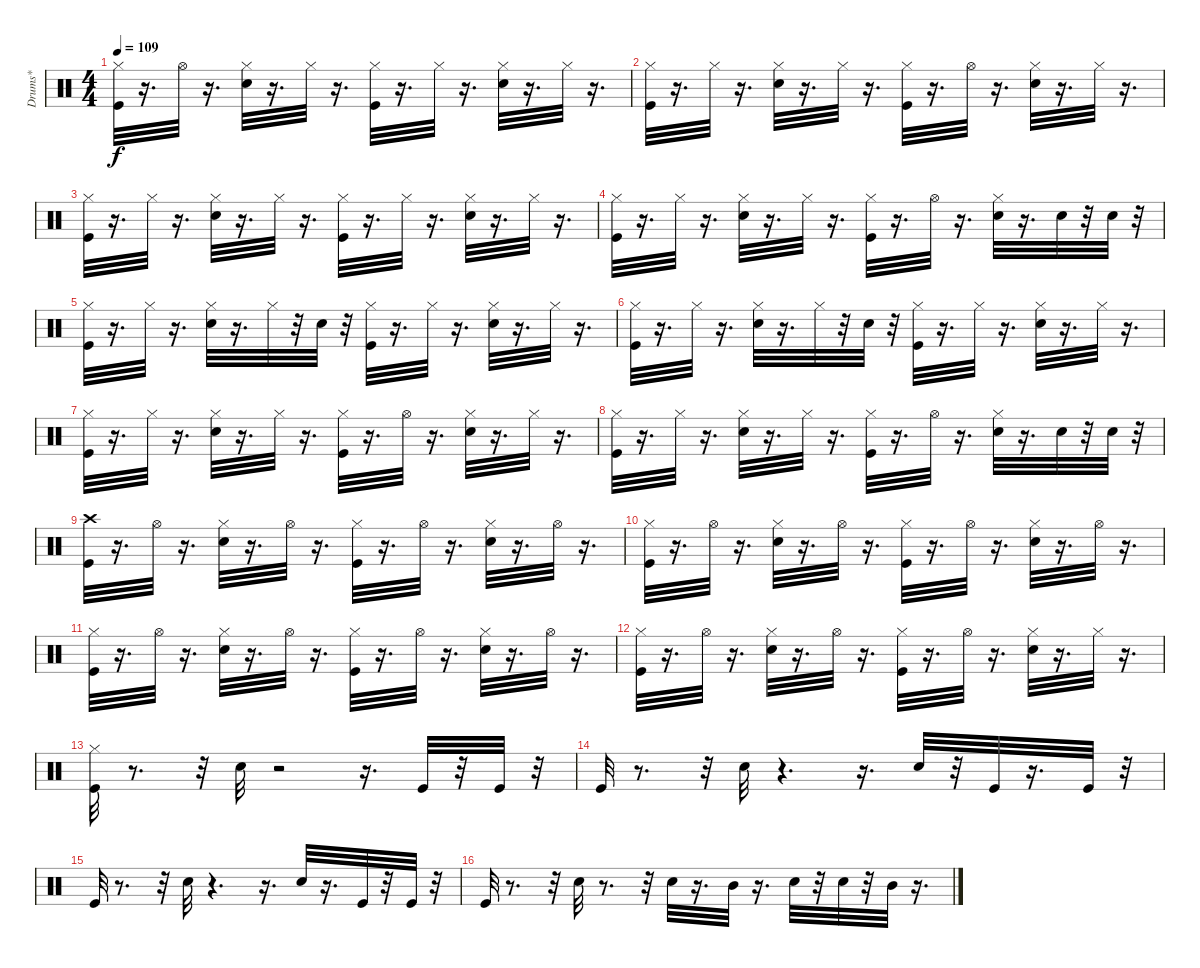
\track ("Drums*" "Drums*") {instrument percussion}
\staff {score}
\articulation defaults
\ts (4 4)
\tempo 109
\clef neutral
\ks c
("Kick (hit)" "Hi-Hat (closed)").32{dy f} r.16{d} "Hi-Hat (open)".32 r.16{d} ("Snare (hit) 2" "Hi-Hat (closed)").32 r.16{d} "Hi-Hat (closed)".32 r.16{d} ("Kick (hit)" "Hi-Hat (closed)").32 r.16{d} "Hi-Hat (closed)".32 r.16{d} ("Snare (hit) 2" "Hi-Hat (closed)").32 r.16{d} "Hi-Hat (closed)".32 r.16{d} |
("Kick (hit)" "Hi-Hat (closed)").32 r.16{d} "Hi-Hat (closed)".32 r.16{d} ("Snare (hit) 2" "Hi-Hat (closed)").32 r.16{d} "Hi-Hat (closed)".32 r.16{d} ("Kick (hit)" "Hi-Hat (closed)").32 r.16{d} "Hi-Hat (open)".32 r.16{d} ("Snare (hit) 2" "Hi-Hat (closed)").32 r.16{d} "Hi-Hat (closed)".32 r.16{d} |
("Kick (hit)" "Hi-Hat (closed)").32 r.16{d} "Hi-Hat (closed)".32 r.16{d} ("Snare (hit) 2" "Hi-Hat (closed)").32 r.16{d} "Hi-Hat (closed)".32 r.16{d} ("Kick (hit)" "Hi-Hat (closed)").32 r.16{d} "Hi-Hat (closed)".32 r.16{d} ("Snare (hit) 2" "Hi-Hat (closed)").32 r.16{d} "Hi-Hat (closed)".32 r.16{d} |
("Kick (hit)" "Hi-Hat (closed)").32 r.16{d} "Hi-Hat (closed)".32 r.16{d} ("Snare (hit) 2" "Hi-Hat (closed)").32 r.16{d} "Hi-Hat (closed)".32 r.16{d} ("Kick (hit)" "Hi-Hat (closed)").32 r.16{d} "Hi-Hat (open)".32 r.16{d} ("Snare (hit) 2" "Hi-Hat (closed)").32 r.16{d} "Snare (hit) 2".32 r.32 "Snare (hit) 2".32 r.32 |
("Kick (hit)" "Hi-Hat (closed)").32 r.16{d} "Hi-Hat (closed)".32 r.16{d} ("Snare (hit) 2" "Hi-Hat (closed)").32 r.16{d} "Hi-Hat (closed)".32 r.32 "Snare (hit) 2".32 r.32 ("Kick (hit)" "Hi-Hat (closed)").32 r.16{d} "Hi-Hat (closed)".32 r.16{d} ("Snare (hit) 2" "Hi-Hat (closed)").32 r.16{d} "Hi-Hat (closed)".32 r.16{d} |
("Kick (hit)" "Hi-Hat (closed)").32 r.16{d} "Hi-Hat (closed)".32 r.16{d} ("Snare (hit) 2" "Hi-Hat (closed)").32 r.16{d} "Hi-Hat (closed)".32 r.32 "Snare (hit) 2".32 r.32 ("Kick (hit)" "Hi-Hat (closed)").32 r.16{d} "Hi-Hat (closed)".32 r.16{d} ("Snare (hit) 2" "Hi-Hat (closed)").32 r.16{d} "Hi-Hat (closed)".32 r.16{d} |
("Kick (hit)" "Hi-Hat (closed)").32 r.16{d} "Hi-Hat (closed)".32 r.16{d} ("Snare (hit) 2" "Hi-Hat (closed)").32 r.16{d} "Hi-Hat (closed)".32 r.16{d} ("Kick (hit)" "Hi-Hat (closed)").32 r.16{d} "Hi-Hat (open)".32 r.16{d} ("Snare (hit) 2" "Hi-Hat (closed)").32 r.16{d} "Hi-Hat (closed)".32 r.16{d} |
("Kick (hit)" "Hi-Hat (closed)").32 r.16{d} "Hi-Hat (closed)".32 r.16{d} ("Snare (hit) 2" "Hi-Hat (closed)").32 r.16{d} "Hi-Hat (closed)".32 r.16{d} ("Kick (hit)" "Hi-Hat (closed)").32 r.16{d} "Hi-Hat (open)".32 r.16{d} ("Snare (hit) 2" "Hi-Hat (closed)").32 r.16{d} "Snare (hit) 2".32 r.32 "Snare (hit) 2".32 r.32 |
("Crash high (hit)" "Kick (hit)").32 r.16{d} "Hi-Hat (open)".32 r.16{d} ("Snare (hit) 2" "Hi-Hat (closed)").32 r.16{d} "Hi-Hat (open)".32 r.16{d} ("Kick (hit)" "Hi-Hat (closed)").32 r.16{d} "Hi-Hat (open)".32 r.16{d} ("Snare (hit) 2" "Hi-Hat (closed)").32 r.16{d} "Hi-Hat (open)".32 r.16{d} |
("Hi-Hat (closed)" "Kick (hit)").32 r.16{d} "Hi-Hat (open)".32 r.16{d} ("Snare (hit) 2" "Hi-Hat (closed)").32 r.16{d} "Hi-Hat (open)".32 r.16{d} ("Kick (hit)" "Hi-Hat (closed)").32 r.16{d} "Hi-Hat (open)".32 r.16{d} ("Snare (hit) 2" "Hi-Hat (closed)").32 r.16{d} "Hi-Hat (open)".32 r.16{d} |
("Hi-Hat (closed)" "Kick (hit)").32 r.16{d} "Hi-Hat (open)".32 r.16{d} ("Snare (hit) 2" "Hi-Hat (closed)").32 r.16{d} "Hi-Hat (open)".32 r.16{d} ("Kick (hit)" "Hi-Hat (closed)").32 r.16{d} "Hi-Hat (open)".32 r.16{d} ("Snare (hit) 2" "Hi-Hat (closed)").32 r.16{d} "Hi-Hat (open)".32 r.16{d} |
("Hi-Hat (closed)" "Kick (hit)").32 r.16{d} "Hi-Hat (open)".32 r.16{d} ("Snare (hit) 2" "Hi-Hat (closed)").32 r.16{d} "Hi-Hat (open)".32 r.16{d} ("Kick (hit)" "Hi-Hat (closed)").32 r.16{d} "Hi-Hat (open)".32 r.16{d} ("Snare (hit) 2" "Hi-Hat (closed)").32 r.16{d} "Hi-Hat (closed)".32 r.16{d} |
("Hi-Hat (closed)" "Kick (hit)").32 r.8{d} r.32 "Snare (hit) 2".32 r.2 r.16{d} "Kick (hit)".32 r.32 "Kick (hit)".32 r.32 |
"Kick (hit)".32 r.8{d} r.32 "Snare (hit) 2".32 r.4{d} r.16{d} "Snare (hit) 2".32 r.32 "Kick (hit)".32 r.16{d} "Kick (hit)".32 r.32 |
"Kick (hit)".32 r.8{d} r.32 "Snare (hit) 2".32 r.4{d} r.16{d} "Snare (hit) 2".32 r.16{d} "Kick (hit)".32 r.32 "Kick (hit)".32 r.32 |
"Kick (hit)".32 r.8{d} r.32 "Snare (hit) 2".32 r.8{d} r.32 "Snare (hit) 2".32 r.16{d} "Mid Tom (hit)".32 r.16{d} "Snare (hit) 2".32 r.32 "Snare (hit) 2".32 r.32 "Mid Tom (hit)".32 r.16{d}
